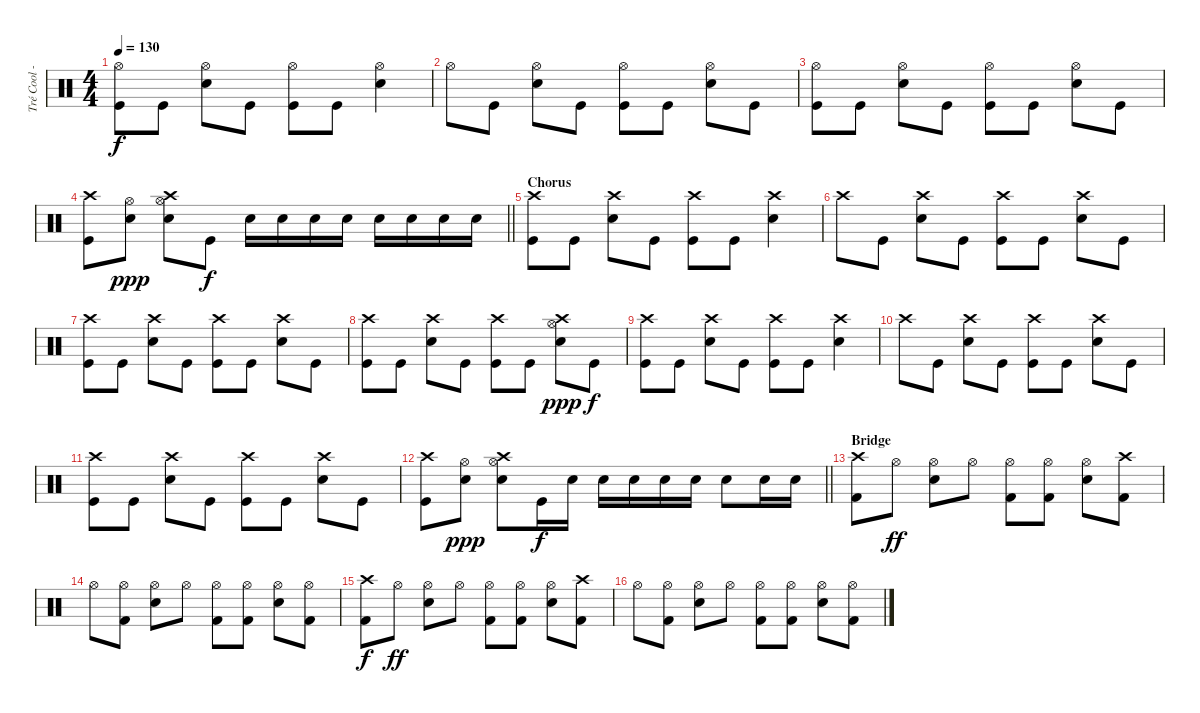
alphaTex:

\track ("Tré Cool - Drums" "Tré Cool -") {instrument percussion}
\staff {score}
\articulation defaults
\ts (4 4)
\tempo 130
\clef neutral
\ks c
("Kick (hit)" "Hi-Hat (open)").8{dy f} "Kick (hit)".8 ("Snare (hit) 2" "Hi-Hat (open)").8 "Kick (hit)".8 ("Kick (hit)" "Hi-Hat (open)").8 "Kick (hit)".8 ("Snare (hit) 2" "Hi-Hat (open)").4 |
"Hi-Hat (open)".8 "Kick (hit)".8 ("Snare (hit) 2" "Hi-Hat (open)").8 "Kick (hit)".8 ("Kick (hit)" "Hi-Hat (open)").8 "Kick (hit)".8 ("Snare (hit) 2" "Hi-Hat (open)").8 "Kick (hit)".8 |
("Kick (hit)" "Hi-Hat (open)").8 "Kick (hit)".8 ("Snare (hit) 2" "Hi-Hat (open)").8 "Kick (hit)".8 ("Kick (hit)" "Hi-Hat (open)").8 "Kick (hit)".8 ("Snare (hit) 2" "Hi-Hat (open)").8 "Kick (hit)".8 |
\barLineRight lightlight
("Kick (hit)" "Crash high (hit)").8 ("Snare (hit) 2" "Hi-Hat (open)").8{dy ppp} ("Snare (hit) 2" "Crash high (hit)" "Hi-Hat (open)").8 "Kick (hit)".8{dy f} "Snare (hit) 2".16 "Snare (hit) 2".16 "Snare (hit) 2".16 "Snare (hit) 2".16 "Snare (hit) 2".16 "Snare (hit) 2".16 "Snare (hit) 2".16 "Snare (hit) 2".16 |
\section ("" "Chorus")
("Kick (hit)" "Crash high (hit)").8 "Kick (hit)".8 ("Snare (hit) 2" "Crash high (hit)").8 "Kick (hit)".8 ("Kick (hit)" "Crash high (hit)").8 "Kick (hit)".8 ("Snare (hit) 2" "Crash high (hit)").4 |
"Crash high (hit)".8 "Kick (hit)".8 ("Snare (hit) 2" "Crash high (hit)").8 "Kick (hit)".8 ("Kick (hit)" "Crash high (hit)").8 "Kick (hit)".8 ("Snare (hit) 2" "Crash high (hit)").8 "Kick (hit)".8 |
("Kick (hit)" "Crash high (hit)").8 "Kick (hit)".8 ("Snare (hit) 2" "Crash high (hit)").8 "Kick (hit)".8 ("Kick (hit)" "Crash high (hit)").8 "Kick (hit)".8 ("Snare (hit) 2" "Crash high (hit)").8 "Kick (hit)".8 |
("Kick (hit)" "Crash high (hit)").8 "Kick (hit)".8 ("Snare (hit) 2" "Crash high (hit)").8 "Kick (hit)".8 ("Kick (hit)" "Crash high (hit)").8 "Kick (hit)".8 ("Snare (hit) 2" "Crash high (hit)" "Hi-Hat (open)").8{dy ppp} "Kick (hit)".8{dy f} |
("Kick (hit)" "Crash high (hit)").8 "Kick (hit)".8 ("Snare (hit) 2" "Crash high (hit)").8 "Kick (hit)".8 ("Kick (hit)" "Crash high (hit)").8 "Kick (hit)".8 ("Snare (hit) 2" "Crash high (hit)").4 |
"Crash high (hit)".8 "Kick (hit)".8 ("Snare (hit) 2" "Crash high (hit)").8 "Kick (hit)".8 ("Kick (hit)" "Crash high (hit)").8 "Kick (hit)".8 ("Snare (hit) 2" "Crash high (hit)").8 "Kick (hit)".8 |
("Kick (hit)" "Crash high (hit)").8 "Kick (hit)".8 ("Snare (hit) 2" "Crash high (hit)").8 "Kick (hit)".8 ("Kick (hit)" "Crash high (hit)").8 "Kick (hit)".8 ("Snare (hit) 2" "Crash high (hit)").8 "Kick (hit)".8 |
\barLineRight lightlight
("Kick (hit)" "Crash high (hit)").8 ("Snare (hit) 2" "Hi-Hat (open)").8{dy ppp} ("Snare (hit) 2" "Crash high (hit)" "Hi-Hat (open)").8 "Kick (hit)".16{dy f} "Snare (hit) 2".16 "Snare (hit) 2".16 "Snare (hit) 2".16 "Snare (hit) 2".16 "Snare (hit) 2".16 "Snare (hit) 2".8 "Snare (hit) 2".16 "Snare (hit) 2".16 |
\section ("" "Bridge")
("Crash high (hit)" "Kick (hit) 2").8 "Hi-Hat (open)".8{dy ff} ("Snare (hit) 2" "Hi-Hat (open)").8 "Hi-Hat (open)".8 ("Kick (hit) 2" "Hi-Hat (open)").8 ("Kick (hit) 2" "Hi-Hat (open)").8 ("Snare (hit) 2" "Hi-Hat (open)").8 ("Kick (hit) 2" "Crash high (hit)").8 |
"Hi-Hat (open)".8 ("Kick (hit) 2" "Hi-Hat (open)").8 ("Snare (hit) 2" "Hi-Hat (open)").8 "Hi-Hat (open)".8 ("Kick (hit) 2" "Hi-Hat (open)").8 ("Kick (hit) 2" "Hi-Hat (open)").8 ("Snare (hit) 2" "Hi-Hat (open)").8 ("Kick (hit) 2" "Hi-Hat (open)").8 |
("Crash high (hit)" "Kick (hit) 2").8{dy f} "Hi-Hat (open)".8{dy ff} ("Snare (hit) 2" "Hi-Hat (open)").8 "Hi-Hat (open)".8 ("Kick (hit) 2" "Hi-Hat (open)").8 ("Kick (hit) 2" "Hi-Hat (open)").8 ("Snare (hit) 2" "Hi-Hat (open)").8 ("Kick (hit) 2" "Crash high (hit)").8 |
"Hi-Hat (open)".8 ("Kick (hit) 2" "Hi-Hat (open)").8 ("Snare (hit) 2" "Hi-Hat (open)").8 "Hi-Hat (open)".8 ("Kick (hit) 2" "Hi-Hat (open)").8 ("Kick (hit) 2" "Hi-Hat (open)").8 ("Snare (hit) 2" "Hi-Hat (open)").8 ("Kick (hit) 2" "Hi-Hat (open)").8
